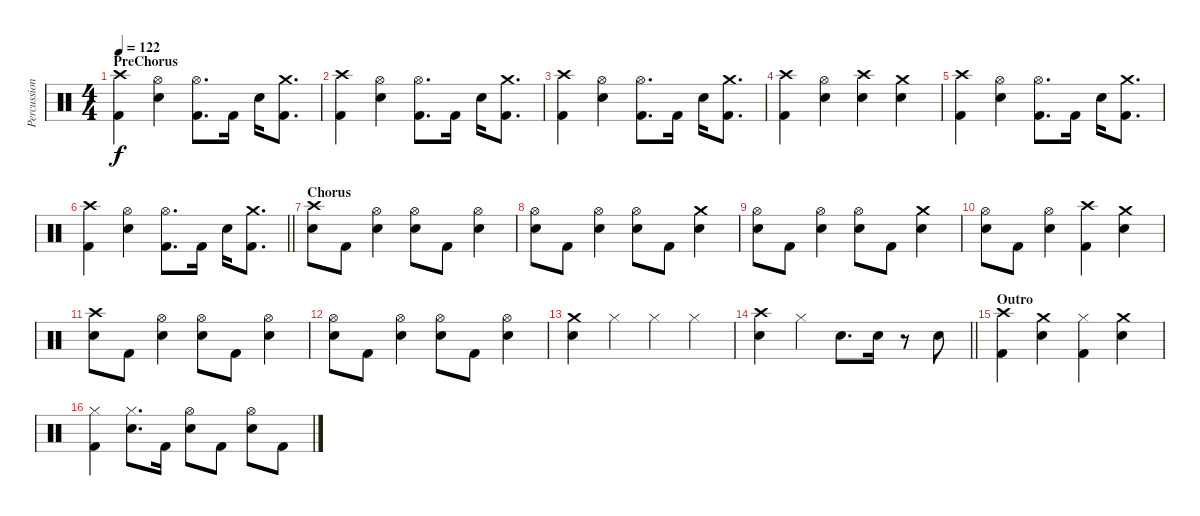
\track ("Percussion" "Percussion") {instrument percussion}
\staff {score}
\articulation defaults
\ts (4 4)
\section ("" "PreChorus")
\tempo 122
\clef neutral
\ks c
("Crash high (hit)" "Kick (hit) 2").4{dy f} ("Hi-Hat (open)" "Electric Snare (hit)").4 ("Hi-Hat (open)" "Kick (hit) 2").8{d} "Kick (hit) 2".16 "Electric Snare (hit)".16 ("Crash medium (hit)" "Kick (hit) 2").8{d} |
("Crash high (hit)" "Kick (hit) 2").4 ("Hi-Hat (open)" "Electric Snare (hit)").4 ("Hi-Hat (open)" "Kick (hit) 2").8{d} "Kick (hit) 2".16 "Electric Snare (hit)".16 ("Crash medium (hit)" "Kick (hit) 2").8{d} |
("Crash high (hit)" "Kick (hit) 2").4 ("Hi-Hat (open)" "Electric Snare (hit)").4 ("Hi-Hat (open)" "Kick (hit) 2").8{d} "Kick (hit) 2".16 "Electric Snare (hit)".16 ("Crash medium (hit)" "Kick (hit) 2").8{d} |
("Crash high (hit)" "Kick (hit) 2").4 ("Hi-Hat (open)" "Electric Snare (hit)").4 ("Crash high (hit)" "Electric Snare (hit)").4 ("Crash medium (hit)" "Electric Snare (hit)").4 |
("Crash high (hit)" "Kick (hit) 2").4 ("Hi-Hat (open)" "Electric Snare (hit)").4 ("Hi-Hat (open)" "Kick (hit) 2").8{d} "Kick (hit) 2".16 "Electric Snare (hit)".16 ("Crash medium (hit)" "Kick (hit) 2").8{d} |
\barLineRight lightlight
("Crash high (hit)" "Kick (hit) 2").4 ("Hi-Hat (open)" "Electric Snare (hit)").4 ("Hi-Hat (open)" "Kick (hit) 2").8{d} "Kick (hit) 2".16 "Electric Snare (hit)".16 ("Crash medium (hit)" "Kick (hit) 2").8{d} |
\section ("" "Chorus")
("Crash high (hit)" "Electric Snare (hit)").8 "Kick (hit) 2".8 ("Hi-Hat (open)" "Electric Snare (hit)").4 ("Hi-Hat (open)" "Electric Snare (hit)").8 "Kick (hit) 2".8 ("Hi-Hat (open)" "Electric Snare (hit)").4 |
("Hi-Hat (open)" "Electric Snare (hit)").8 "Kick (hit) 2".8 ("Hi-Hat (open)" "Electric Snare (hit)").4 ("Hi-Hat (open)" "Electric Snare (hit)").8 "Kick (hit) 2".8 ("Crash medium (hit)" "Electric Snare (hit)").4 |
("Hi-Hat (open)" "Electric Snare (hit)").8 "Kick (hit) 2".8 ("Hi-Hat (open)" "Electric Snare (hit)").4 ("Hi-Hat (open)" "Electric Snare (hit)").8 "Kick (hit) 2".8 ("Crash medium (hit)" "Electric Snare (hit)").4 |
("Hi-Hat (open)" "Electric Snare (hit)").8 "Kick (hit) 2".8 ("Hi-Hat (open)" "Electric Snare (hit)").4 ("Crash high (hit)" "Kick (hit) 2").4 ("Crash medium (hit)" "Electric Snare (hit)").4 |
("Crash high (hit)" "Electric Snare (hit)").8 "Kick (hit) 2".8 ("Hi-Hat (open)" "Electric Snare (hit)").4 ("Hi-Hat (open)" "Electric Snare (hit)").8 "Kick (hit) 2".8 ("Hi-Hat (open)" "Electric Snare (hit)").4 |
("Hi-Hat (open)" "Electric Snare (hit)").8 "Kick (hit) 2".8 ("Hi-Hat (open)" "Electric Snare (hit)").4 ("Hi-Hat (open)" "Electric Snare (hit)").8 "Kick (hit) 2".8 ("Hi-Hat (open)" "Electric Snare (hit)").4 |
("Crash medium (hit)" "Electric Snare (hit)").4 "Hi-Hat (closed)".4 "Hi-Hat (closed)".4 "Hi-Hat (closed)".4 |
\barLineRight lightlight
("Crash high (hit)" "Electric Snare (hit)").4 "Hi-Hat (closed)".4 "Electric Snare (hit)".8{d} "Electric Snare (hit)".16 r.8 "Electric Snare (hit)".8 |
\section ("" "Outro")
("Crash high (hit)" "Kick (hit) 2").4 ("Crash medium (hit)" "Electric Snare (hit)").4 ("Hi-Hat (closed)" "Kick (hit) 2").4 ("Crash medium (hit)" "Electric Snare (hit)").4 |
("Hi-Hat (closed)" "Kick (hit) 2").4 ("Hi-Hat (closed)" "Electric Snare (hit)").8{d} "Kick (hit) 2".16 ("Hi-Hat (open)" "Electric Snare (hit)").8 "Kick (hit) 2".8 ("Hi-Hat (open)" "Electric Snare (hit)").8 "Kick (hit) 2".8
